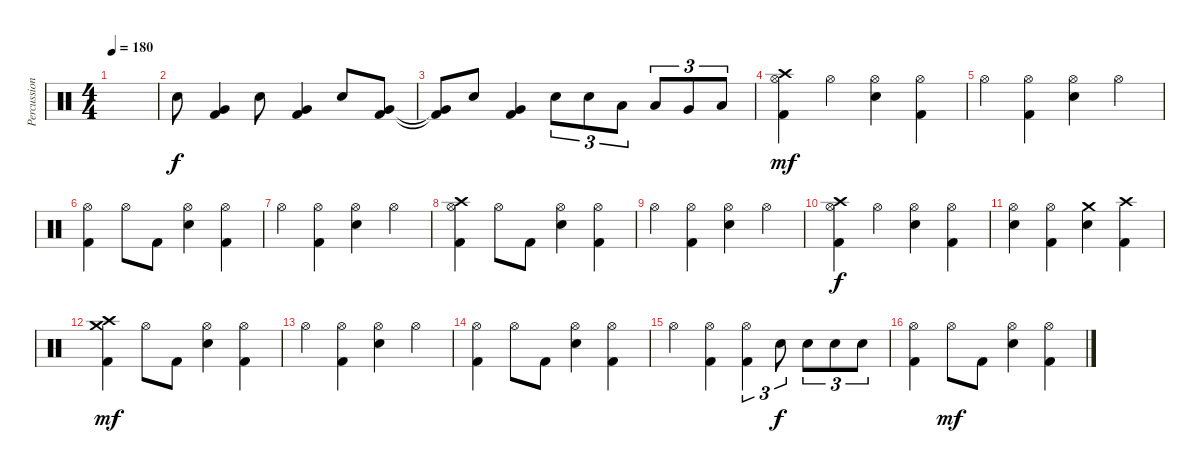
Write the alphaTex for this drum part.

\track ("Percussion" "Percussion") {instrument percussion}
\staff {score}
\articulation defaults
\ts (4 4)
\tempo 180
\clef neutral
\ks c
|
"Electric Snare (hit)".8 ("Very Low Tom (hit)" "Kick (hit) 2").4 "Electric Snare (hit)".8 ("Very Low Tom (hit)" "Kick (hit) 2").4 "Electric Snare (hit)".8 ("Very Low Tom (hit)" "Kick (hit) 2").8 |
("Very Low Tom (hit)"{t} "Kick (hit) 2"{t}).8 "Electric Snare (hit)".8 ("Very Low Tom (hit)" "Kick (hit) 2").4 "Electric Snare (hit)".8{tu (3 2)} "Electric Snare (hit)".8{tu (3 2)} "Low Tom (hit)".8{tu (3 2)} "Low Tom (hit)".8{tu (3 2)} "Very Low Tom (hit)".8{tu (3 2)} "Low Floor Tom (hit)".8{tu (3 2)} |
("Crash high (hit)" "Hi-Hat (open)" "Kick (hit) 2").4{dy mf} "Hi-Hat (open)".4 ("Hi-Hat (open)" "Electric Snare (hit)").4 ("Hi-Hat (open)" "Kick (hit) 2").4 |
"Hi-Hat (open)".4 ("Hi-Hat (open)" "Kick (hit) 2").4 ("Hi-Hat (open)" "Electric Snare (hit)").4 "Hi-Hat (open)".4 |
("Hi-Hat (open)" "Kick (hit) 2").4 "Hi-Hat (open)".8 "Kick (hit) 2".8 ("Hi-Hat (open)" "Electric Snare (hit)").4 ("Hi-Hat (open)" "Kick (hit) 2").4 |
"Hi-Hat (open)".4 ("Hi-Hat (open)" "Kick (hit) 2").4 ("Hi-Hat (open)" "Electric Snare (hit)").4 "Hi-Hat (open)".4 |
("Crash high (hit)" "Hi-Hat (open)" "Kick (hit) 2").4 "Hi-Hat (open)".8 "Kick (hit) 2".8 ("Hi-Hat (open)" "Electric Snare (hit)").4 ("Hi-Hat (open)" "Kick (hit) 2").4 |
"Hi-Hat (open)".4 ("Hi-Hat (open)" "Kick (hit) 2").4 ("Hi-Hat (open)" "Electric Snare (hit)").4 "Hi-Hat (open)".4 |
("Crash high (hit)" "Hi-Hat (open)" "Kick (hit) 2").4{dy f} "Hi-Hat (open)".4 ("Hi-Hat (open)" "Electric Snare (hit)").4 ("Hi-Hat (open)" "Kick (hit) 2").4 |
("Hi-Hat (open)" "Electric Snare (hit)").4 ("Hi-Hat (open)" "Kick (hit) 2").4 ("Crash medium (hit)" "Electric Snare (hit)").4 ("Crash high (hit)" "Kick (hit) 2").4 |
("Crash medium (hit)" "Crash high (hit)" "Kick (hit) 2").4{dy mf} "Hi-Hat (open)".8 "Kick (hit) 2".8 ("Hi-Hat (open)" "Electric Snare (hit)").4 ("Hi-Hat (open)" "Kick (hit) 2").4 |
"Hi-Hat (open)".4 ("Hi-Hat (open)" "Kick (hit) 2").4 ("Hi-Hat (open)" "Electric Snare (hit)").4 "Hi-Hat (open)".4 |
("Hi-Hat (open)" "Kick (hit) 2").4 "Hi-Hat (open)".8 "Kick (hit) 2".8 ("Hi-Hat (open)" "Electric Snare (hit)").4 ("Hi-Hat (open)" "Kick (hit) 2").4 |
"Hi-Hat (open)".4 ("Hi-Hat (open)" "Kick (hit) 2").4 ("Hi-Hat (open)" "Kick (hit) 2").4{tu (3 2)} "Electric Snare (hit)".8{tu (3 2) dy f} "Electric Snare (hit)".8{tu (3 2)} "Electric Snare (hit)".8{tu (3 2)} "Electric Snare (hit)".8{tu (3 2)} |
("Hi-Hat (open)" "Kick (hit) 2").4 "Hi-Hat (open)".8{dy mf} "Kick (hit) 2".8 ("Hi-Hat (open)" "Electric Snare (hit)").4 ("Hi-Hat (open)" "Kick (hit) 2").4
